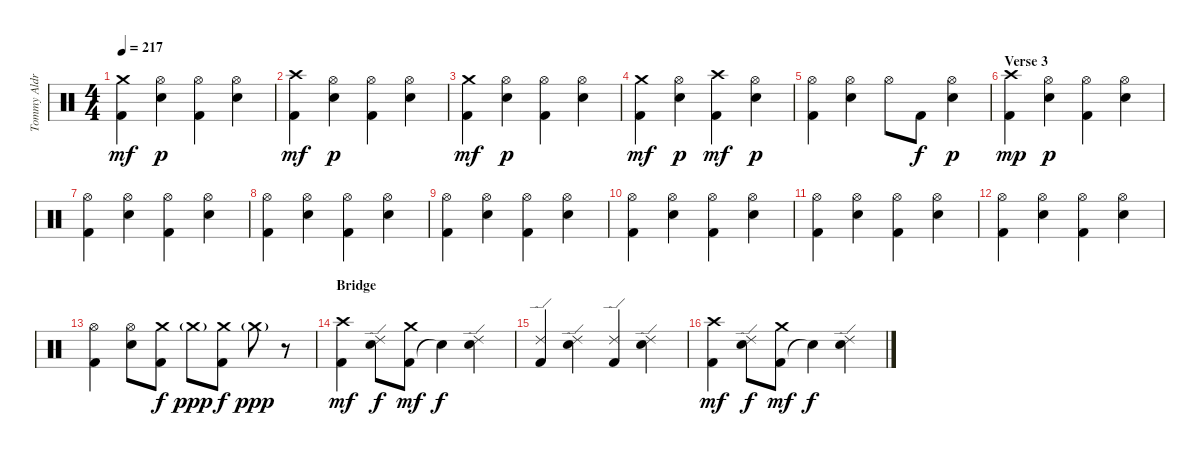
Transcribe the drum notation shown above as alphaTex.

\track ("Tommy Aldridge" "Tommy Aldr") {instrument percussion}
\staff {score}
\articulation defaults
\ts (4 4)
\tempo 217
\clef neutral
\ks c
("Kick (hit) 2" "Crash medium (hit)").4{dy mf} ("Hi-Hat (open)" "Snare (hit) 2").4{dy p} ("Kick (hit) 2" "Hi-Hat (open)").4 ("Hi-Hat (open)" "Snare (hit) 2").4 |
("Kick (hit) 2" "Crash high (hit)").4{dy mf} ("Hi-Hat (open)" "Snare (hit) 2").4{dy p} ("Kick (hit) 2" "Hi-Hat (open)").4 ("Hi-Hat (open)" "Snare (hit) 2").4 |
("Kick (hit) 2" "Crash medium (hit)").4{dy mf} ("Hi-Hat (open)" "Snare (hit) 2").4{dy p} ("Kick (hit) 2" "Hi-Hat (open)").4 ("Hi-Hat (open)" "Snare (hit) 2").4 |
("Kick (hit) 2" "Crash medium (hit)").4{dy mf} ("Hi-Hat (open)" "Snare (hit) 2").4{dy p} ("Kick (hit) 2" "Crash high (hit)").4{dy mf} ("Hi-Hat (open)" "Snare (hit) 2").4{dy p} |
("Kick (hit) 2" "Hi-Hat (open)").4 ("Hi-Hat (open)" "Snare (hit) 2").4 "Hi-Hat (open)".8 "Kick (hit) 2".8{dy f} ("Hi-Hat (open)" "Snare (hit) 2").4{dy p} |
\section ("" "Verse 3")
("Kick (hit) 2" "Crash high (hit)").4{dy mp} ("Hi-Hat (open)" "Snare (hit) 2").4{dy p} ("Kick (hit) 2" "Hi-Hat (open)").4 ("Hi-Hat (open)" "Snare (hit) 2").4 |
("Kick (hit) 2" "Hi-Hat (open)").4 ("Hi-Hat (open)" "Snare (hit) 2").4 ("Kick (hit) 2" "Hi-Hat (open)").4 ("Hi-Hat (open)" "Snare (hit) 2").4 |
("Kick (hit) 2" "Hi-Hat (open)").4 ("Hi-Hat (open)" "Snare (hit) 2").4 ("Kick (hit) 2" "Hi-Hat (open)").4 ("Hi-Hat (open)" "Snare (hit) 2").4 |
("Kick (hit) 2" "Hi-Hat (open)").4 ("Hi-Hat (open)" "Snare (hit) 2").4 ("Kick (hit) 2" "Hi-Hat (open)").4 ("Hi-Hat (open)" "Snare (hit) 2").4 |
("Kick (hit) 2" "Hi-Hat (open)").4 ("Hi-Hat (open)" "Snare (hit) 2").4 ("Kick (hit) 2" "Hi-Hat (open)").4 ("Hi-Hat (open)" "Snare (hit) 2").4 |
("Kick (hit) 2" "Hi-Hat (open)").4 ("Hi-Hat (open)" "Snare (hit) 2").4 ("Kick (hit) 2" "Hi-Hat (open)").4 ("Hi-Hat (open)" "Snare (hit) 2").4 |
("Kick (hit) 2" "Hi-Hat (open)").4 ("Hi-Hat (open)" "Snare (hit) 2").4 ("Kick (hit) 2" "Hi-Hat (open)").4 ("Hi-Hat (open)" "Snare (hit) 2").4 |
("Kick (hit) 2" "Hi-Hat (open)").4 ("Hi-Hat (open)" "Snare (hit) 2").8 ("Kick (hit) 2" "Crash medium (hit)").8{dy f} "Crash medium (hit)"{g}.8{dy ppp} ("Kick (hit) 2" "Crash medium (hit)").8{dy f} "Crash medium (hit)"{g}.8{dy ppp} r.8 |
\section ("" "Bridge")
("Kick (hit) 2" "Crash high (hit)").4{dy mf} ("Ride (edge) 2" "Snare (hit) 2").8{dy f} ("Kick (hit) 2" "Crash medium (hit)").8{dy mf} "Snare (hit)"{t}.4{dy f} ("Ride (edge) 2" "Snare (hit) 2").4 |
("Kick (hit) 2" "Ride (edge) 2").4 ("Ride (edge) 2" "Snare (hit) 2").4 ("Kick (hit) 2" "Ride (edge) 2").4 ("Ride (edge) 2" "Snare (hit) 2").4 |
("Kick (hit) 2" "Crash high (hit)").4{dy mf} ("Ride (edge) 2" "Snare (hit) 2").8{dy f} ("Kick (hit) 2" "Crash medium (hit)").8{dy mf} "Snare (hit)"{t}.4{dy f} ("Ride (edge) 2" "Snare (hit) 2").4
